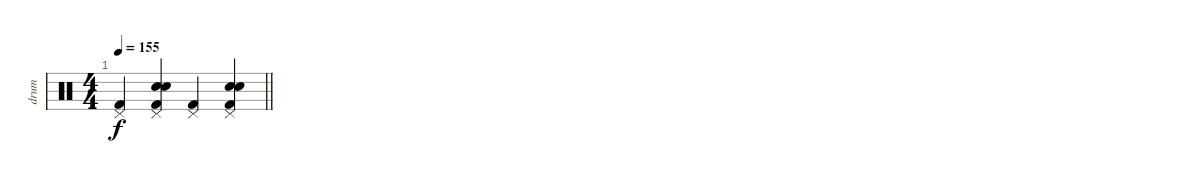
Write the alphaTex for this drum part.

\track ("drum" "drum") {instrument percussion}
\staff {score}
\articulation defaults
\ts (4 4)
\tempo 155
\clef neutral
\barLineRight lightlight
\ks c
("Pedal Hi-Hat (hit)" "Kick (hit) 2").4{dy f} ("Pedal Hi-Hat (hit)" "Electric Snare (hit)" "Snare (hit) 2" "Kick (hit) 2").4 ("Pedal Hi-Hat (hit)" "Kick (hit) 2").4 ("Pedal Hi-Hat (hit)" "Electric Snare (hit)" "Snare (hit) 2" "Kick (hit) 2").4
